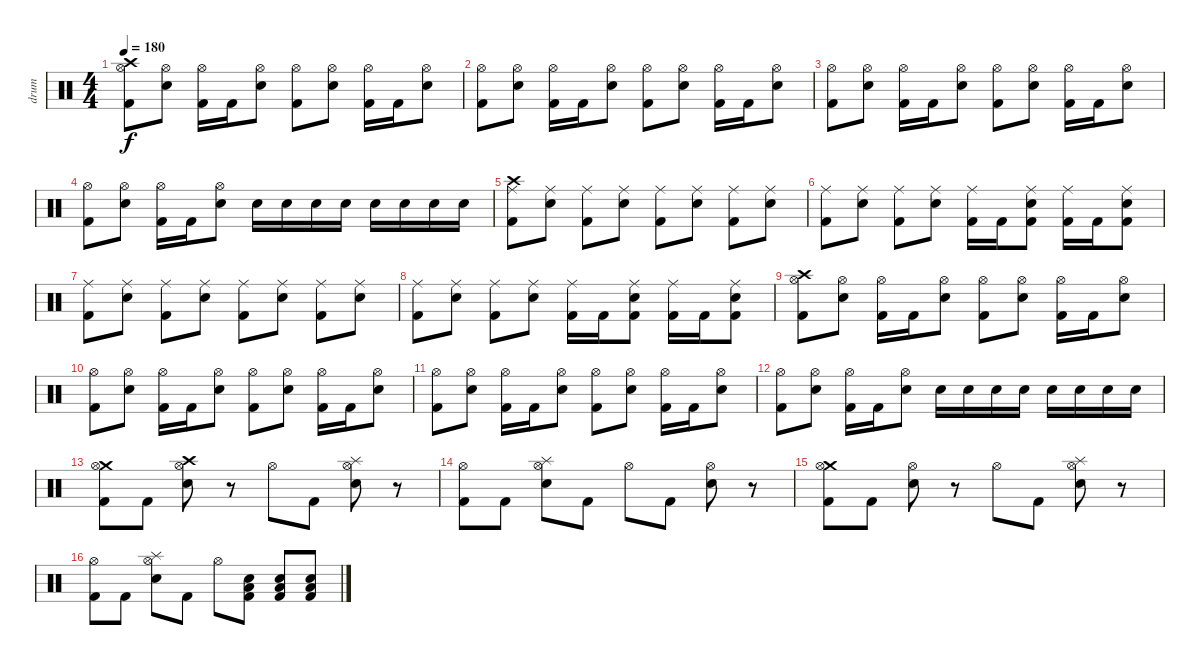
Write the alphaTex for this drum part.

\track ("drum" "drum") {instrument percussion}
\staff {score}
\articulation defaults
\ts (4 4)
\tempo 180
\clef neutral
\ks c
("Crash high (hit)" "Hi-Hat (open)" "Kick (hit) 2").8{dy f} ("Hi-Hat (open)" "Electric Snare (hit)").8 ("Hi-Hat (open)" "Kick (hit) 2").16 "Kick (hit) 2".16 ("Hi-Hat (open)" "Electric Snare (hit)").8 ("Hi-Hat (open)" "Kick (hit) 2").8 ("Hi-Hat (open)" "Electric Snare (hit)").8 ("Hi-Hat (open)" "Kick (hit) 2").16 "Kick (hit) 2".16 ("Hi-Hat (open)" "Electric Snare (hit)").8 |
("Hi-Hat (open)" "Kick (hit) 2").8 ("Hi-Hat (open)" "Electric Snare (hit)").8 ("Hi-Hat (open)" "Kick (hit) 2").16 "Kick (hit) 2".16 ("Hi-Hat (open)" "Electric Snare (hit)").8 ("Hi-Hat (open)" "Kick (hit) 2").8 ("Hi-Hat (open)" "Electric Snare (hit)").8 ("Hi-Hat (open)" "Kick (hit) 2").16 "Kick (hit) 2".16 ("Hi-Hat (open)" "Electric Snare (hit)").8 |
("Hi-Hat (open)" "Kick (hit) 2").8 ("Hi-Hat (open)" "Electric Snare (hit)").8 ("Hi-Hat (open)" "Kick (hit) 2").16 "Kick (hit) 2".16 ("Hi-Hat (open)" "Electric Snare (hit)").8 ("Hi-Hat (open)" "Kick (hit) 2").8 ("Hi-Hat (open)" "Electric Snare (hit)").8 ("Hi-Hat (open)" "Kick (hit) 2").16 "Kick (hit) 2".16 ("Hi-Hat (open)" "Electric Snare (hit)").8 |
("Hi-Hat (open)" "Kick (hit) 2").8 ("Hi-Hat (open)" "Electric Snare (hit)").8 ("Hi-Hat (open)" "Kick (hit) 2").16 "Kick (hit) 2".16 ("Hi-Hat (open)" "Electric Snare (hit)").8 "Electric Snare (hit)".16 "Electric Snare (hit)".16 "Electric Snare (hit)".16 "Electric Snare (hit)".16 "Electric Snare (hit)".16 "Electric Snare (hit)".16 "Electric Snare (hit)".16 "Electric Snare (hit)".16 |
("Crash high (hit)" "Ride (middle)" "Kick (hit) 2").8 ("Ride (middle)" "Electric Snare (hit)").8 ("Ride (middle)" "Kick (hit) 2").8 ("Ride (middle)" "Electric Snare (hit)").8 ("Ride (middle)" "Kick (hit) 2").8 ("Ride (middle)" "Electric Snare (hit)").8 ("Ride (middle)" "Kick (hit) 2").8 ("Ride (middle)" "Electric Snare (hit)").8 |
("Ride (middle)" "Kick (hit) 2").8 ("Ride (middle)" "Electric Snare (hit)").8 ("Ride (middle)" "Kick (hit) 2").8 ("Ride (middle)" "Electric Snare (hit)").8 ("Ride (middle)" "Kick (hit) 2").16 "Kick (hit) 2".16 ("Ride (middle)" "Electric Snare (hit)" "Kick (hit) 2").8 ("Ride (middle)" "Kick (hit) 2").16 "Kick (hit) 2".16 ("Ride (middle)" "Electric Snare (hit)" "Kick (hit) 2").8 |
("Ride (middle)" "Kick (hit) 2").8 ("Ride (middle)" "Electric Snare (hit)").8 ("Ride (middle)" "Kick (hit) 2").8 ("Ride (middle)" "Electric Snare (hit)").8 ("Ride (middle)" "Kick (hit) 2").8 ("Ride (middle)" "Electric Snare (hit)").8 ("Ride (middle)" "Kick (hit) 2").8 ("Ride (middle)" "Electric Snare (hit)").8 |
("Ride (middle)" "Kick (hit) 2").8 ("Ride (middle)" "Electric Snare (hit)").8 ("Ride (middle)" "Kick (hit) 2").8 ("Ride (middle)" "Electric Snare (hit)").8 ("Ride (middle)" "Kick (hit) 2").16 "Kick (hit) 2".16 ("Ride (middle)" "Electric Snare (hit)" "Kick (hit) 2").8 ("Ride (middle)" "Kick (hit) 2").16 "Kick (hit) 2".16 ("Ride (middle)" "Electric Snare (hit)" "Kick (hit) 2").8 |
("Crash high (hit)" "Hi-Hat (open)" "Kick (hit) 2").8 ("Hi-Hat (open)" "Electric Snare (hit)").8 ("Hi-Hat (open)" "Kick (hit) 2").16 "Kick (hit) 2".16 ("Hi-Hat (open)" "Electric Snare (hit)").8 ("Hi-Hat (open)" "Kick (hit) 2").8 ("Hi-Hat (open)" "Electric Snare (hit)").8 ("Hi-Hat (open)" "Kick (hit) 2").16 "Kick (hit) 2".16 ("Hi-Hat (open)" "Electric Snare (hit)").8 |
("Hi-Hat (open)" "Kick (hit) 2").8 ("Hi-Hat (open)" "Electric Snare (hit)").8 ("Hi-Hat (open)" "Kick (hit) 2").16 "Kick (hit) 2".16 ("Hi-Hat (open)" "Electric Snare (hit)").8 ("Hi-Hat (open)" "Kick (hit) 2").8 ("Hi-Hat (open)" "Electric Snare (hit)").8 ("Hi-Hat (open)" "Kick (hit) 2").16 "Kick (hit) 2".16 ("Hi-Hat (open)" "Electric Snare (hit)").8 |
("Hi-Hat (open)" "Kick (hit) 2").8 ("Hi-Hat (open)" "Electric Snare (hit)").8 ("Hi-Hat (open)" "Kick (hit) 2").16 "Kick (hit) 2".16 ("Hi-Hat (open)" "Electric Snare (hit)").8 ("Hi-Hat (open)" "Kick (hit) 2").8 ("Hi-Hat (open)" "Electric Snare (hit)").8 ("Hi-Hat (open)" "Kick (hit) 2").16 "Kick (hit) 2".16 ("Hi-Hat (open)" "Electric Snare (hit)").8 |
("Hi-Hat (open)" "Kick (hit) 2").8 ("Hi-Hat (open)" "Electric Snare (hit)").8 ("Hi-Hat (open)" "Kick (hit) 2").16 "Kick (hit) 2".16 ("Hi-Hat (open)" "Electric Snare (hit)").8 "Electric Snare (hit)".16 "Electric Snare (hit)".16 "Electric Snare (hit)".16 "Electric Snare (hit)".16 "Electric Snare (hit)".16 "Electric Snare (hit)".16 "Electric Snare (hit)".16 "Electric Snare (hit)".16 |
("Crash medium (hit)" "Hi-Hat (open)" "Kick (hit) 2").8 "Kick (hit) 2".8 ("Crash high (hit)" "Hi-Hat (open)" "Electric Snare (hit)").8 r.8 "Hi-Hat (open)".8 "Kick (hit) 2".8 ("Splash (hit)" "Hi-Hat (open)" "Electric Snare (hit)").8 r.8 |
("Hi-Hat (open)" "Kick (hit) 2").8 "Kick (hit) 2".8 ("Splash (hit)" "Hi-Hat (open)" "Electric Snare (hit)").8 "Kick (hit) 2".8 "Hi-Hat (open)".8 "Kick (hit) 2".8 ("Hi-Hat (open)" "Electric Snare (hit)").8 r.8 |
("Crash medium (hit)" "Hi-Hat (open)" "Kick (hit) 2").8 "Kick (hit) 2".8 ("Hi-Hat (open)" "Electric Snare (hit)").8 r.8 "Hi-Hat (open)".8 "Kick (hit) 2".8 ("Splash (hit)" "Hi-Hat (open)" "Electric Snare (hit)").8 r.8 |
("Hi-Hat (open)" "Kick (hit) 2").8 "Kick (hit) 2".8 ("Splash (hit)" "Hi-Hat (open)" "Electric Snare (hit)").8 "Kick (hit) 2".8 "Hi-Hat (open)".8 ("Low Floor Tom (hit)" "Electric Snare (hit)" "Kick (hit) 2").8 ("Low Floor Tom (hit)" "Electric Snare (hit)" "Kick (hit) 2").8 ("Low Floor Tom (hit)" "Electric Snare (hit)" "Kick (hit) 2").8
